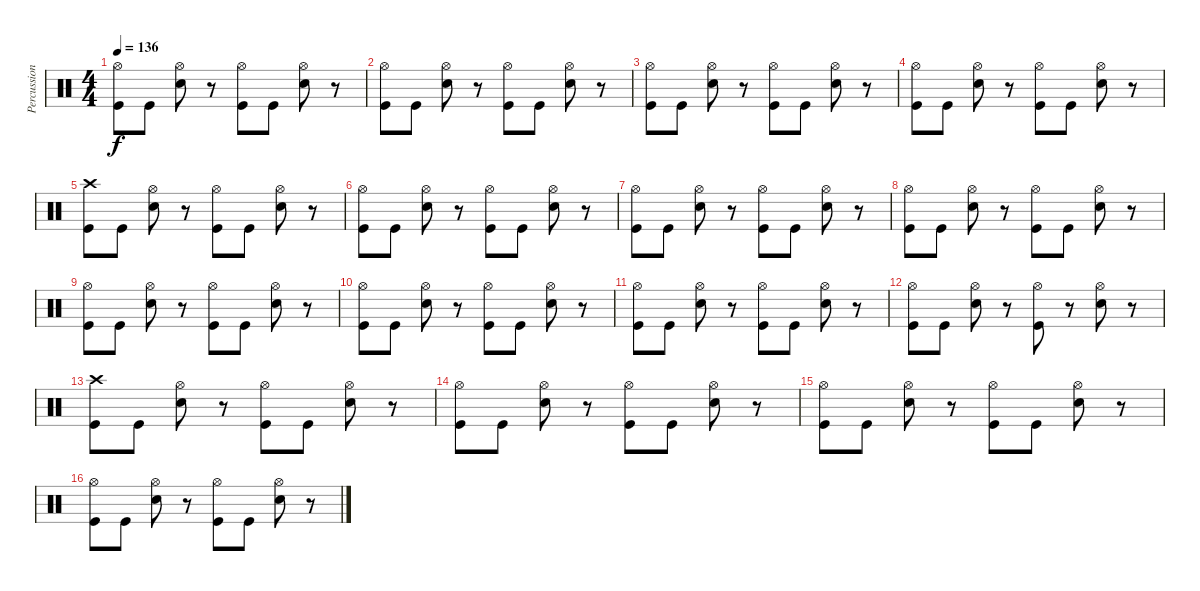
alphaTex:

\track ("Percussion" "Percussion") {instrument percussion}
\staff {score}
\articulation defaults
\ts (4 4)
\tempo 136
\clef neutral
\ks c
("Hi-Hat (open)" "Kick (hit)").8{dy f} "Kick (hit)".8 ("Hi-Hat (open)" "Snare (hit) 2").8 r.8 ("Hi-Hat (open)" "Kick (hit)").8 "Kick (hit)".8 ("Hi-Hat (open)" "Snare (hit) 2").8 r.8 |
("Hi-Hat (open)" "Kick (hit)").8 "Kick (hit)".8 ("Hi-Hat (open)" "Snare (hit) 2").8 r.8 ("Hi-Hat (open)" "Kick (hit)").8 "Kick (hit)".8 ("Hi-Hat (open)" "Snare (hit) 2").8 r.8 |
("Hi-Hat (open)" "Kick (hit)").8 "Kick (hit)".8 ("Hi-Hat (open)" "Snare (hit) 2").8 r.8 ("Hi-Hat (open)" "Kick (hit)").8 "Kick (hit)".8 ("Hi-Hat (open)" "Snare (hit) 2").8 r.8 |
("Hi-Hat (open)" "Kick (hit)").8 "Kick (hit)".8 ("Hi-Hat (open)" "Snare (hit) 2").8 r.8 ("Hi-Hat (open)" "Kick (hit)").8 "Kick (hit)".8 ("Hi-Hat (open)" "Snare (hit) 2").8 r.8 |
("Crash high (hit)" "Kick (hit)").8 "Kick (hit)".8 ("Hi-Hat (open)" "Snare (hit) 2").8 r.8 ("Hi-Hat (open)" "Kick (hit)").8 "Kick (hit)".8 ("Hi-Hat (open)" "Snare (hit) 2").8 r.8 |
("Hi-Hat (open)" "Kick (hit)").8 "Kick (hit)".8 ("Hi-Hat (open)" "Snare (hit) 2").8 r.8 ("Hi-Hat (open)" "Kick (hit)").8 "Kick (hit)".8 ("Hi-Hat (open)" "Snare (hit) 2").8 r.8 |
("Hi-Hat (open)" "Kick (hit)").8 "Kick (hit)".8 ("Hi-Hat (open)" "Snare (hit) 2").8 r.8 ("Hi-Hat (open)" "Kick (hit)").8 "Kick (hit)".8 ("Hi-Hat (open)" "Snare (hit) 2").8 r.8 |
("Hi-Hat (open)" "Kick (hit)").8 "Kick (hit)".8 ("Hi-Hat (open)" "Snare (hit) 2").8 r.8 ("Hi-Hat (open)" "Kick (hit)").8 "Kick (hit)".8 ("Hi-Hat (open)" "Snare (hit) 2").8 r.8 |
("Hi-Hat (open)" "Kick (hit)").8 "Kick (hit)".8 ("Hi-Hat (open)" "Snare (hit) 2").8 r.8 ("Hi-Hat (open)" "Kick (hit)").8 "Kick (hit)".8 ("Hi-Hat (open)" "Snare (hit) 2").8 r.8 |
("Hi-Hat (open)" "Kick (hit)").8 "Kick (hit)".8 ("Hi-Hat (open)" "Snare (hit) 2").8 r.8 ("Hi-Hat (open)" "Kick (hit)").8 "Kick (hit)".8 ("Hi-Hat (open)" "Snare (hit) 2").8 r.8 |
("Hi-Hat (open)" "Kick (hit)").8 "Kick (hit)".8 ("Hi-Hat (open)" "Snare (hit) 2").8 r.8 ("Hi-Hat (open)" "Kick (hit)").8 "Kick (hit)".8 ("Hi-Hat (open)" "Snare (hit) 2").8 r.8 |
("Hi-Hat (open)" "Kick (hit)").8 "Kick (hit)".8 ("Hi-Hat (open)" "Snare (hit) 2").8 r.8 ("Hi-Hat (open)" "Kick (hit)").8 r.8 ("Hi-Hat (open)" "Snare (hit) 2").8 r.8 |
("Crash high (hit)" "Kick (hit)").8 "Kick (hit)".8 ("Hi-Hat (open)" "Snare (hit) 2").8 r.8 ("Hi-Hat (open)" "Kick (hit)").8 "Kick (hit)".8 ("Hi-Hat (open)" "Snare (hit) 2").8 r.8 |
("Hi-Hat (open)" "Kick (hit)").8 "Kick (hit)".8 ("Hi-Hat (open)" "Snare (hit) 2").8 r.8 ("Hi-Hat (open)" "Kick (hit)").8 "Kick (hit)".8 ("Hi-Hat (open)" "Snare (hit) 2").8 r.8 |
("Hi-Hat (open)" "Kick (hit)").8 "Kick (hit)".8 ("Hi-Hat (open)" "Snare (hit) 2").8 r.8 ("Hi-Hat (open)" "Kick (hit)").8 "Kick (hit)".8 ("Hi-Hat (open)" "Snare (hit) 2").8 r.8 |
("Hi-Hat (open)" "Kick (hit)").8 "Kick (hit)".8 ("Hi-Hat (open)" "Snare (hit) 2").8 r.8 ("Hi-Hat (open)" "Kick (hit)").8 "Kick (hit)".8 ("Hi-Hat (open)" "Snare (hit) 2").8 r.8
